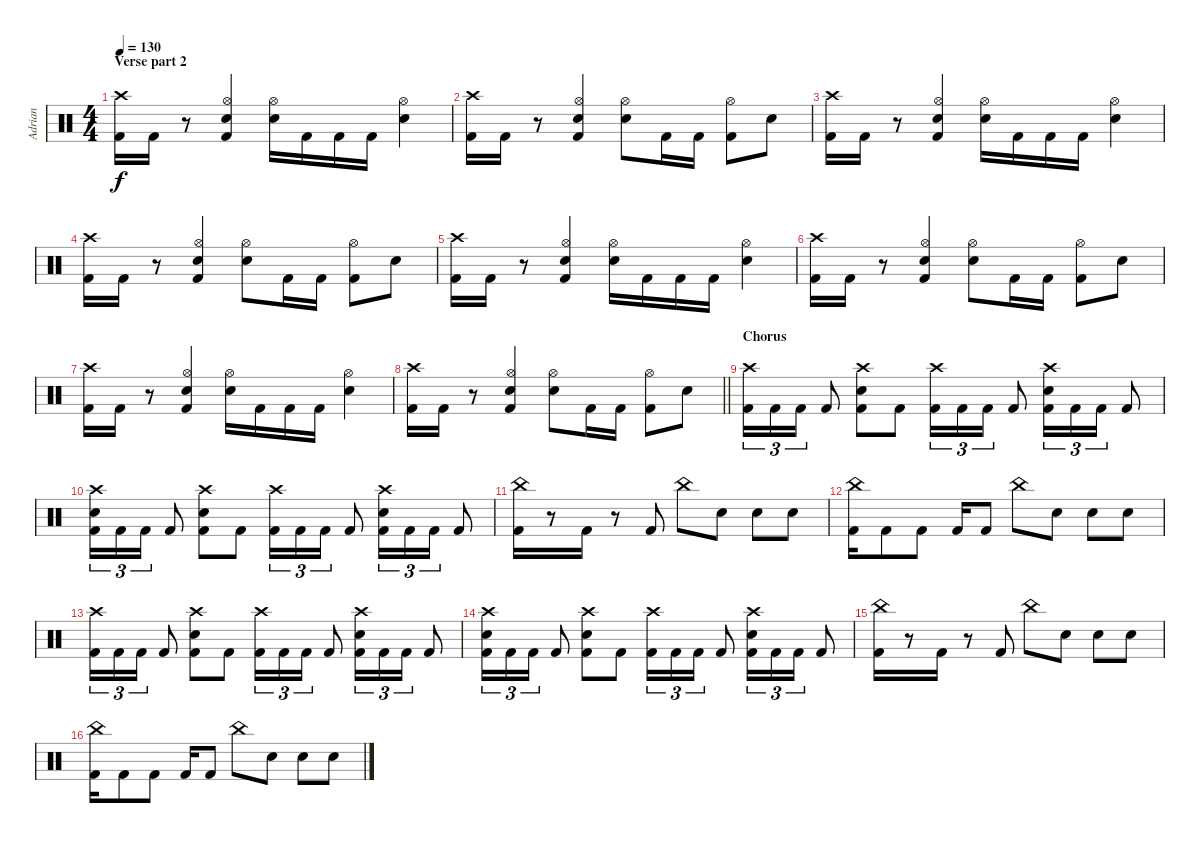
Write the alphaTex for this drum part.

\track ("Adrian" "Adrian") {instrument percussion}
\staff {score}
\articulation defaults
\ts (4 4)
\section ("" "Verse part 2")
\tempo 130
\clef neutral
\ks c
("Crash high (hit)" "Kick (hit) 2").16{dy f} "Kick (hit) 2".16 r.8 ("Hi-Hat (open)" "Snare (hit) 2" "Kick (hit) 2").4 ("Hi-Hat (open)" "Snare (hit) 2").16 "Kick (hit) 2".16 "Kick (hit) 2".16 "Kick (hit) 2".16 ("Hi-Hat (open)" "Snare (hit) 2").4 |
("Crash high (hit)" "Kick (hit) 2").16 "Kick (hit) 2".16 r.8 ("Hi-Hat (open)" "Snare (hit) 2" "Kick (hit) 2").4 ("Hi-Hat (open)" "Snare (hit) 2").8 "Kick (hit) 2".16 "Kick (hit) 2".16 ("Hi-Hat (open)" "Kick (hit) 2").8 "Snare (hit) 2".8 |
("Crash high (hit)" "Kick (hit) 2").16 "Kick (hit) 2".16 r.8 ("Hi-Hat (open)" "Snare (hit) 2" "Kick (hit) 2").4 ("Hi-Hat (open)" "Snare (hit) 2").16 "Kick (hit) 2".16 "Kick (hit) 2".16 "Kick (hit) 2".16 ("Hi-Hat (open)" "Snare (hit) 2").4 |
("Crash high (hit)" "Kick (hit) 2").16 "Kick (hit) 2".16 r.8 ("Hi-Hat (open)" "Snare (hit) 2" "Kick (hit) 2").4 ("Hi-Hat (open)" "Snare (hit) 2").8 "Kick (hit) 2".16 "Kick (hit) 2".16 ("Hi-Hat (open)" "Kick (hit) 2").8 "Snare (hit) 2".8 |
("Crash high (hit)" "Kick (hit) 2").16 "Kick (hit) 2".16 r.8 ("Hi-Hat (open)" "Snare (hit) 2" "Kick (hit) 2").4 ("Hi-Hat (open)" "Snare (hit) 2").16 "Kick (hit) 2".16 "Kick (hit) 2".16 "Kick (hit) 2".16 ("Hi-Hat (open)" "Snare (hit) 2").4 |
("Crash high (hit)" "Kick (hit) 2").16 "Kick (hit) 2".16 r.8 ("Hi-Hat (open)" "Snare (hit) 2" "Kick (hit) 2").4 ("Hi-Hat (open)" "Snare (hit) 2").8 "Kick (hit) 2".16 "Kick (hit) 2".16 ("Hi-Hat (open)" "Kick (hit) 2").8 "Snare (hit) 2".8 |
("Crash high (hit)" "Kick (hit) 2").16 "Kick (hit) 2".16 r.8 ("Hi-Hat (open)" "Snare (hit) 2" "Kick (hit) 2").4 ("Hi-Hat (open)" "Snare (hit) 2").16 "Kick (hit) 2".16 "Kick (hit) 2".16 "Kick (hit) 2".16 ("Hi-Hat (open)" "Snare (hit) 2").4 |
\barLineRight lightlight
("Crash high (hit)" "Kick (hit) 2").16 "Kick (hit) 2".16 r.8 ("Hi-Hat (open)" "Snare (hit) 2" "Kick (hit) 2").4 ("Hi-Hat (open)" "Snare (hit) 2").8 "Kick (hit) 2".16 "Kick (hit) 2".16 ("Hi-Hat (open)" "Kick (hit) 2").8 "Snare (hit) 2".8 |
\section ("" "Chorus")
("Crash high (hit)" "Kick (hit) 2").16{tu (3 2)} "Kick (hit) 2".16{tu (3 2)} "Kick (hit) 2".16{tu (3 2)} "Kick (hit) 2".8 ("Crash high (hit)" "Snare (hit) 2" "Kick (hit) 2").8 "Kick (hit) 2".8 ("Crash high (hit)" "Kick (hit) 2").16{tu (3 2)} "Kick (hit) 2".16{tu (3 2)} "Kick (hit) 2".16{tu (3 2)} "Kick (hit) 2".8 ("Crash high (hit)" "Snare (hit) 2" "Kick (hit) 2").16{tu (3 2)} "Kick (hit) 2".16{tu (3 2)} "Kick (hit) 2".16{tu (3 2)} "Kick (hit) 2".8 |
("Crash high (hit)" "Snare (hit) 2" "Kick (hit) 2").16{tu (3 2)} "Kick (hit) 2".16{tu (3 2)} "Kick (hit) 2".16{tu (3 2)} "Kick (hit) 2".8 ("Crash high (hit)" "Snare (hit) 2" "Kick (hit) 2").8 "Kick (hit) 2".8 ("Crash high (hit)" "Kick (hit) 2").16{tu (3 2)} "Kick (hit) 2".16{tu (3 2)} "Kick (hit) 2".16{tu (3 2)} "Kick (hit) 2".8 ("Crash high (hit)" "Snare (hit) 2" "Kick (hit) 2").16{tu (3 2)} "Kick (hit) 2".16{tu (3 2)} "Kick (hit) 2".16{tu (3 2)} "Kick (hit) 2".8 |
("China (hit)" "Kick (hit) 2").16 r.8 "Kick (hit) 2".16 r.8 "Kick (hit) 2".8 "China (hit)".8 "Snare (hit) 2".8 "Snare (hit) 2".8 "Snare (hit) 2".8 |
("China (hit)" "Kick (hit) 2").16 "Kick (hit) 2".8 "Kick (hit) 2".8 "Kick (hit) 2".16 "Kick (hit) 2".8 "China (hit)".8 "Snare (hit) 2".8 "Snare (hit) 2".8 "Snare (hit) 2".8 |
("Crash high (hit)" "Kick (hit) 2").16{tu (3 2)} "Kick (hit) 2".16{tu (3 2)} "Kick (hit) 2".16{tu (3 2)} "Kick (hit) 2".8 ("Crash high (hit)" "Snare (hit) 2" "Kick (hit) 2").8 "Kick (hit) 2".8 ("Crash high (hit)" "Kick (hit) 2").16{tu (3 2)} "Kick (hit) 2".16{tu (3 2)} "Kick (hit) 2".16{tu (3 2)} "Kick (hit) 2".8 ("Crash high (hit)" "Snare (hit) 2" "Kick (hit) 2").16{tu (3 2)} "Kick (hit) 2".16{tu (3 2)} "Kick (hit) 2".16{tu (3 2)} "Kick (hit) 2".8 |
("Crash high (hit)" "Snare (hit) 2" "Kick (hit) 2").16{tu (3 2)} "Kick (hit) 2".16{tu (3 2)} "Kick (hit) 2".16{tu (3 2)} "Kick (hit) 2".8 ("Crash high (hit)" "Snare (hit) 2" "Kick (hit) 2").8 "Kick (hit) 2".8 ("Crash high (hit)" "Kick (hit) 2").16{tu (3 2)} "Kick (hit) 2".16{tu (3 2)} "Kick (hit) 2".16{tu (3 2)} "Kick (hit) 2".8 ("Crash high (hit)" "Snare (hit) 2" "Kick (hit) 2").16{tu (3 2)} "Kick (hit) 2".16{tu (3 2)} "Kick (hit) 2".16{tu (3 2)} "Kick (hit) 2".8 |
("China (hit)" "Kick (hit) 2").16 r.8 "Kick (hit) 2".16 r.8 "Kick (hit) 2".8 "China (hit)".8 "Snare (hit) 2".8 "Snare (hit) 2".8 "Snare (hit) 2".8 |
("China (hit)" "Kick (hit) 2").16 "Kick (hit) 2".8 "Kick (hit) 2".8 "Kick (hit) 2".16 "Kick (hit) 2".8 "China (hit)".8 "Snare (hit) 2".8 "Snare (hit) 2".8 "Snare (hit) 2".8
